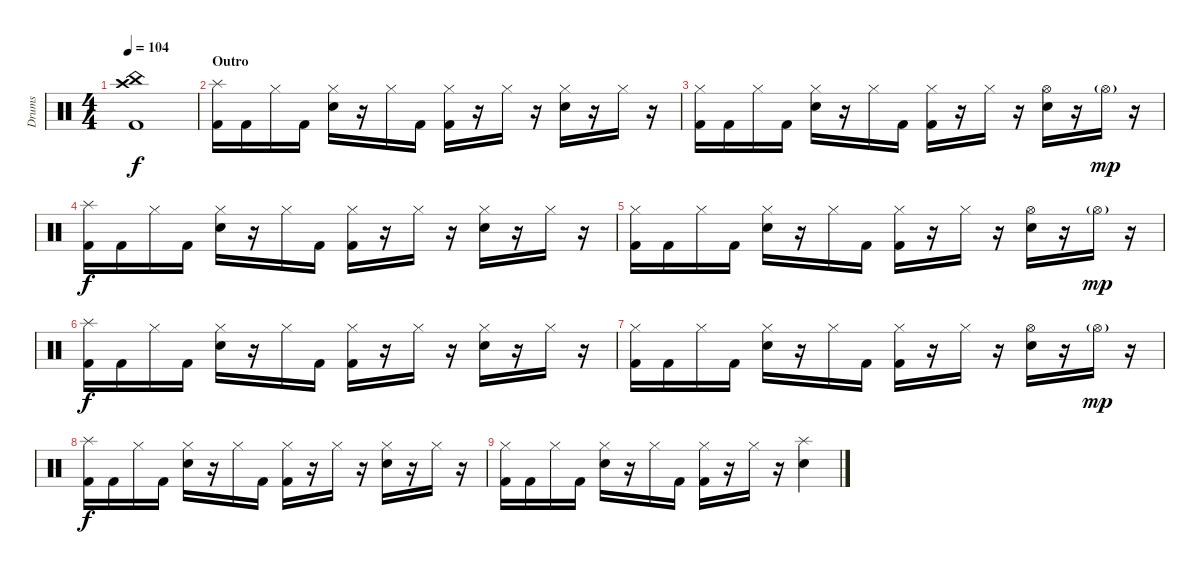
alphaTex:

\track ("Drums" "Drums") {instrument percussion}
\staff {score}
\articulation defaults
\ts (4 4)
\tempo 104
\clef neutral
\ks c
("China (hit)" "Crash high (hit)" "Kick (hit) 2").1{dy f} |
\section ("" "Outro")
("Splash (hit)" "Kick (hit) 2").16 "Kick (hit) 2".16 "Hi-Hat (closed)".16 "Kick (hit) 2".16 ("Hi-Hat (closed)" "Electric Snare (hit)").16 r.16 "Hi-Hat (closed)".16 "Kick (hit) 2".16 ("Hi-Hat (closed)" "Kick (hit) 2").16 r.16 "Hi-Hat (closed)".16 r.16 ("Hi-Hat (closed)" "Electric Snare (hit)").16 r.16 "Hi-Hat (closed)".16 r.16 |
("Hi-Hat (closed)" "Kick (hit) 2").16 "Kick (hit) 2".16 "Hi-Hat (closed)".16 "Kick (hit) 2".16 ("Hi-Hat (closed)" "Electric Snare (hit)").16 r.16 "Hi-Hat (closed)".16 "Kick (hit) 2".16 ("Hi-Hat (closed)" "Kick (hit) 2").16 r.16 "Hi-Hat (closed)".16 r.16 ("Hi-Hat (open)" "Electric Snare (hit)").16 r.16 "Hi-Hat (open)"{g}.16{dy mp} r.16 |
("Splash (hit)" "Kick (hit) 2").16{dy f} "Kick (hit) 2".16 "Hi-Hat (closed)".16 "Kick (hit) 2".16 ("Hi-Hat (closed)" "Electric Snare (hit)").16 r.16 "Hi-Hat (closed)".16 "Kick (hit) 2".16 ("Hi-Hat (closed)" "Kick (hit) 2").16 r.16 "Hi-Hat (closed)".16 r.16 ("Hi-Hat (closed)" "Electric Snare (hit)").16 r.16 "Hi-Hat (closed)".16 r.16 |
("Hi-Hat (closed)" "Kick (hit) 2").16 "Kick (hit) 2".16 "Hi-Hat (closed)".16 "Kick (hit) 2".16 ("Hi-Hat (closed)" "Electric Snare (hit)").16 r.16 "Hi-Hat (closed)".16 "Kick (hit) 2".16 ("Hi-Hat (closed)" "Kick (hit) 2").16 r.16 "Hi-Hat (closed)".16 r.16 ("Hi-Hat (open)" "Electric Snare (hit)").16 r.16 "Hi-Hat (open)"{g}.16{dy mp} r.16 |
("Splash (hit)" "Kick (hit) 2").16{dy f} "Kick (hit) 2".16 "Hi-Hat (closed)".16 "Kick (hit) 2".16 ("Hi-Hat (closed)" "Electric Snare (hit)").16 r.16 "Hi-Hat (closed)".16 "Kick (hit) 2".16 ("Hi-Hat (closed)" "Kick (hit) 2").16 r.16 "Hi-Hat (closed)".16 r.16 ("Hi-Hat (closed)" "Electric Snare (hit)").16 r.16 "Hi-Hat (closed)".16 r.16 |
("Hi-Hat (closed)" "Kick (hit) 2").16 "Kick (hit) 2".16 "Hi-Hat (closed)".16 "Kick (hit) 2".16 ("Hi-Hat (closed)" "Electric Snare (hit)").16 r.16 "Hi-Hat (closed)".16 "Kick (hit) 2".16 ("Hi-Hat (closed)" "Kick (hit) 2").16 r.16 "Hi-Hat (closed)".16 r.16 ("Hi-Hat (open)" "Electric Snare (hit)").16 r.16 "Hi-Hat (open)"{g}.16{dy mp} r.16 |
("Splash (hit)" "Kick (hit) 2").16{dy f} "Kick (hit) 2".16 "Hi-Hat (closed)".16 "Kick (hit) 2".16 ("Hi-Hat (closed)" "Electric Snare (hit)").16 r.16 "Hi-Hat (closed)".16 "Kick (hit) 2".16 ("Hi-Hat (closed)" "Kick (hit) 2").16 r.16 "Hi-Hat (closed)".16 r.16 ("Hi-Hat (closed)" "Electric Snare (hit)").16 r.16 "Hi-Hat (closed)".16 r.16 |
("Hi-Hat (closed)" "Kick (hit) 2").16 "Kick (hit) 2".16 "Hi-Hat (closed)".16 "Kick (hit) 2".16 ("Hi-Hat (closed)" "Electric Snare (hit)").16 r.16 "Hi-Hat (closed)".16 "Kick (hit) 2".16 ("Hi-Hat (closed)" "Kick (hit) 2").16 r.16 "Hi-Hat (closed)".16 r.16 ("Splash (hit)" "Electric Snare (hit)").4
